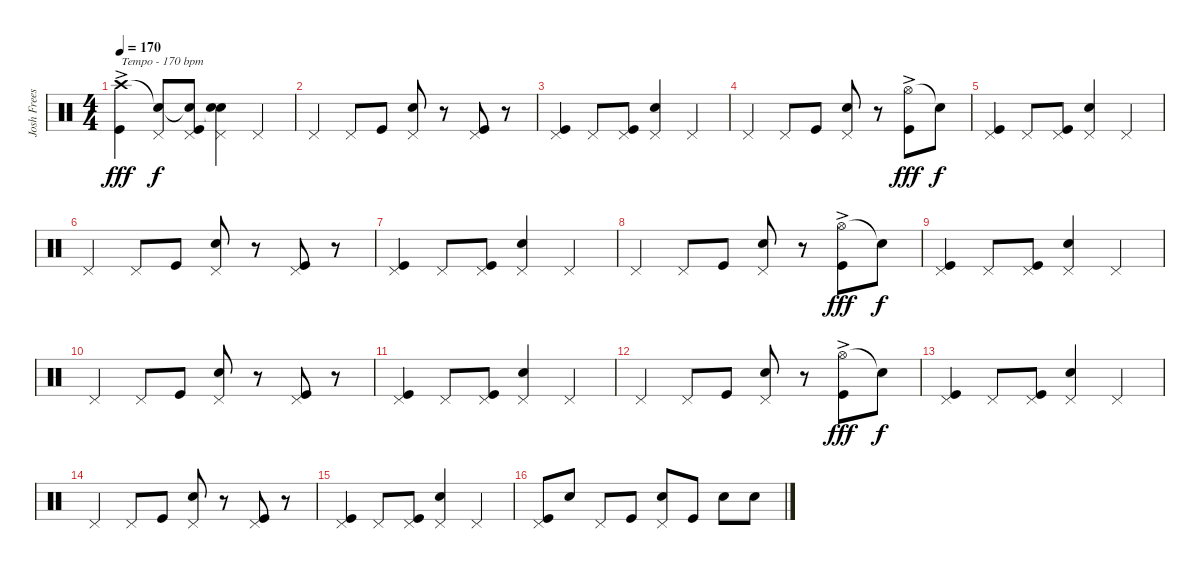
\track ("Josh Freese - Drums" "Josh Frees") {instrument percussion}
\staff {score}
\articulation defaults
\ts (4 4)
\tempo 170
\clef neutral
\ks c
("Crash high (hit)"{ac} "Kick (hit)").4{txt "Tempo - 170 bpm" dy fff} ("Snare (hit)"{t} "Pedal Hi-Hat (hit)").8{dy f} ("Snare (hit)"{t} "Pedal Hi-Hat (hit)" "Kick (hit)").8 ("Snare (hit)"{t} "Pedal Hi-Hat (hit)" "Electric Snare (hit)").4 "Pedal Hi-Hat (hit)".4 |
"Pedal Hi-Hat (hit)".4 "Pedal Hi-Hat (hit)".8 "Kick (hit)".8 ("Pedal Hi-Hat (hit)" "Electric Snare (hit)").8 r.8 ("Pedal Hi-Hat (hit)" "Kick (hit)").8 r.8 |
("Pedal Hi-Hat (hit)" "Kick (hit)").4 "Pedal Hi-Hat (hit)".8 ("Pedal Hi-Hat (hit)" "Kick (hit)").8 ("Pedal Hi-Hat (hit)" "Electric Snare (hit)").4 "Pedal Hi-Hat (hit)".4 |
"Pedal Hi-Hat (hit)".4 "Pedal Hi-Hat (hit)".8 "Kick (hit)".8 ("Pedal Hi-Hat (hit)" "Electric Snare (hit)").8 r.8 ("Hi-Hat (open)"{ac} "Kick (hit)").8{dy fff} "Snare (hit)"{t}.8{dy f} |
("Pedal Hi-Hat (hit)" "Kick (hit)").4 "Pedal Hi-Hat (hit)".8 ("Pedal Hi-Hat (hit)" "Kick (hit)").8 ("Pedal Hi-Hat (hit)" "Electric Snare (hit)").4 "Pedal Hi-Hat (hit)".4 |
"Pedal Hi-Hat (hit)".4 "Pedal Hi-Hat (hit)".8 "Kick (hit)".8 ("Pedal Hi-Hat (hit)" "Electric Snare (hit)").8 r.8 ("Pedal Hi-Hat (hit)" "Kick (hit)").8 r.8 |
("Pedal Hi-Hat (hit)" "Kick (hit)").4 "Pedal Hi-Hat (hit)".8 ("Pedal Hi-Hat (hit)" "Kick (hit)").8 ("Pedal Hi-Hat (hit)" "Electric Snare (hit)").4 "Pedal Hi-Hat (hit)".4 |
"Pedal Hi-Hat (hit)".4 "Pedal Hi-Hat (hit)".8 "Kick (hit)".8 ("Pedal Hi-Hat (hit)" "Electric Snare (hit)").8 r.8 ("Hi-Hat (open)"{ac} "Kick (hit)").8{dy fff} "Snare (hit)"{t}.8{dy f} |
("Pedal Hi-Hat (hit)" "Kick (hit)").4 "Pedal Hi-Hat (hit)".8 ("Pedal Hi-Hat (hit)" "Kick (hit)").8 ("Pedal Hi-Hat (hit)" "Electric Snare (hit)").4 "Pedal Hi-Hat (hit)".4 |
"Pedal Hi-Hat (hit)".4 "Pedal Hi-Hat (hit)".8 "Kick (hit)".8 ("Pedal Hi-Hat (hit)" "Electric Snare (hit)").8 r.8 ("Pedal Hi-Hat (hit)" "Kick (hit)").8 r.8 |
("Pedal Hi-Hat (hit)" "Kick (hit)").4 "Pedal Hi-Hat (hit)".8 ("Pedal Hi-Hat (hit)" "Kick (hit)").8 ("Pedal Hi-Hat (hit)" "Electric Snare (hit)").4 "Pedal Hi-Hat (hit)".4 |
"Pedal Hi-Hat (hit)".4 "Pedal Hi-Hat (hit)".8 "Kick (hit)".8 ("Pedal Hi-Hat (hit)" "Electric Snare (hit)").8 r.8 ("Hi-Hat (open)"{ac} "Kick (hit)").8{dy fff} "Snare (hit)"{t}.8{dy f} |
("Pedal Hi-Hat (hit)" "Kick (hit)").4 "Pedal Hi-Hat (hit)".8 ("Pedal Hi-Hat (hit)" "Kick (hit)").8 ("Pedal Hi-Hat (hit)" "Electric Snare (hit)").4 "Pedal Hi-Hat (hit)".4 |
"Pedal Hi-Hat (hit)".4 "Pedal Hi-Hat (hit)".8 "Kick (hit)".8 ("Pedal Hi-Hat (hit)" "Electric Snare (hit)").8 r.8 ("Pedal Hi-Hat (hit)" "Kick (hit)").8 r.8 |
("Pedal Hi-Hat (hit)" "Kick (hit)").4 "Pedal Hi-Hat (hit)".8 ("Pedal Hi-Hat (hit)" "Kick (hit)").8 ("Pedal Hi-Hat (hit)" "Electric Snare (hit)").4 "Pedal Hi-Hat (hit)".4 |
("Pedal Hi-Hat (hit)" "Kick (hit)").8 "Electric Snare (hit)".8 "Pedal Hi-Hat (hit)".8 "Kick (hit)".8 ("Pedal Hi-Hat (hit)" "Electric Snare (hit)").8 "Kick (hit)".8 "Electric Snare (hit)".8 "Electric Snare (hit)".8
